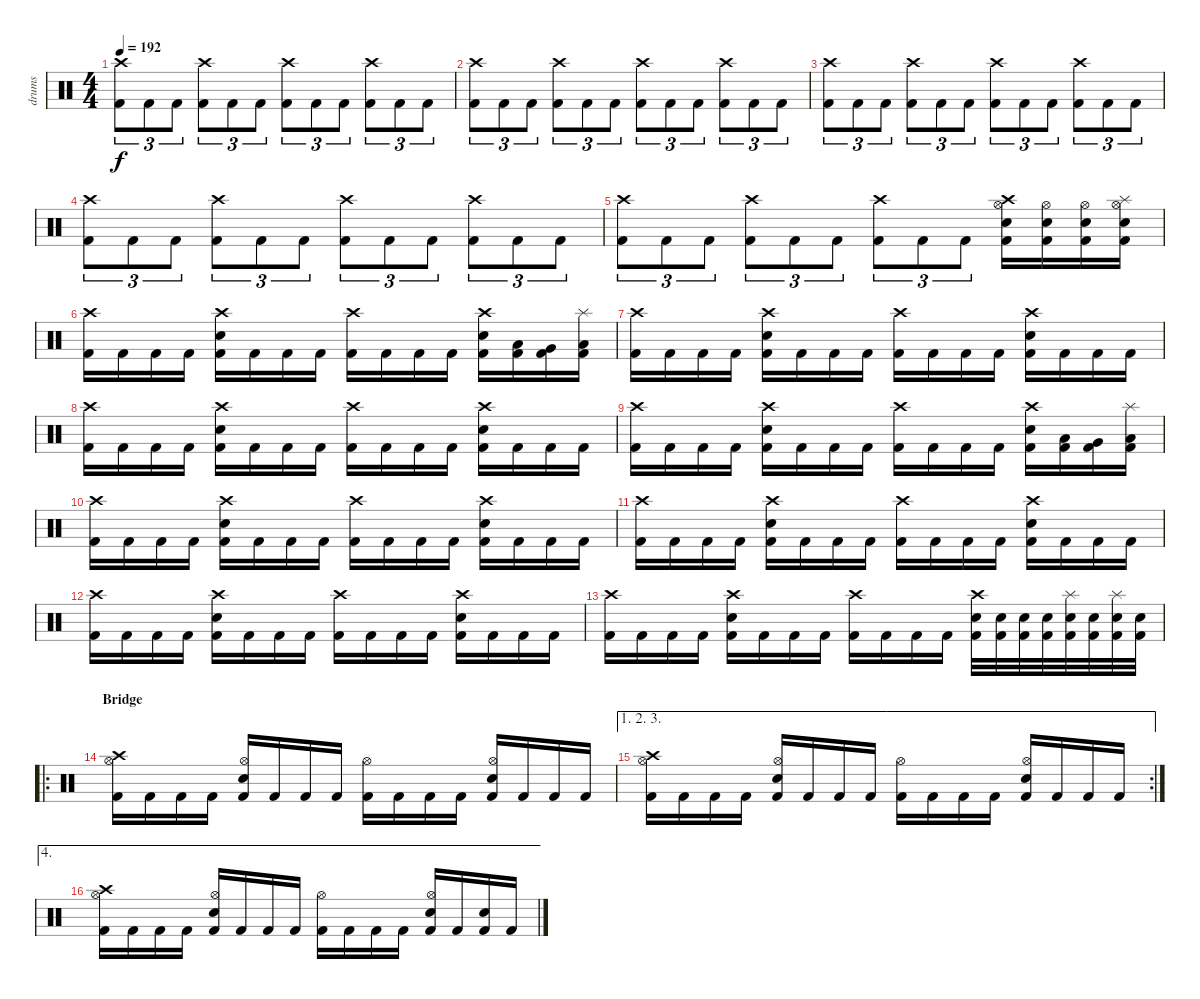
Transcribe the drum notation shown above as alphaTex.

\track ("drums" "drums") {instrument percussion}
\staff {score}
\articulation defaults
\ts (4 4)
\tempo 192
\clef neutral
\ks c
("Crash high (hit)" "Kick (hit) 2").8{tu (3 2) dy f} "Kick (hit) 2".8{tu (3 2)} "Kick (hit) 2".8{tu (3 2)} ("Crash high (hit)" "Kick (hit) 2").8{tu (3 2)} "Kick (hit) 2".8{tu (3 2)} "Kick (hit) 2".8{tu (3 2)} ("Crash high (hit)" "Kick (hit) 2").8{tu (3 2)} "Kick (hit) 2".8{tu (3 2)} "Kick (hit) 2".8{tu (3 2)} ("Crash high (hit)" "Kick (hit) 2").8{tu (3 2)} "Kick (hit) 2".8{tu (3 2)} "Kick (hit) 2".8{tu (3 2)} |
("Crash high (hit)" "Kick (hit) 2").8{tu (3 2)} "Kick (hit) 2".8{tu (3 2)} "Kick (hit) 2".8{tu (3 2)} ("Crash high (hit)" "Kick (hit) 2").8{tu (3 2)} "Kick (hit) 2".8{tu (3 2)} "Kick (hit) 2".8{tu (3 2)} ("Crash high (hit)" "Kick (hit) 2").8{tu (3 2)} "Kick (hit) 2".8{tu (3 2)} "Kick (hit) 2".8{tu (3 2)} ("Crash high (hit)" "Kick (hit) 2").8{tu (3 2)} "Kick (hit) 2".8{tu (3 2)} "Kick (hit) 2".8{tu (3 2)} |
("Crash high (hit)" "Kick (hit) 2").8{tu (3 2)} "Kick (hit) 2".8{tu (3 2)} "Kick (hit) 2".8{tu (3 2)} ("Crash high (hit)" "Kick (hit) 2").8{tu (3 2)} "Kick (hit) 2".8{tu (3 2)} "Kick (hit) 2".8{tu (3 2)} ("Crash high (hit)" "Kick (hit) 2").8{tu (3 2)} "Kick (hit) 2".8{tu (3 2)} "Kick (hit) 2".8{tu (3 2)} ("Crash high (hit)" "Kick (hit) 2").8{tu (3 2)} "Kick (hit) 2".8{tu (3 2)} "Kick (hit) 2".8{tu (3 2)} |
("Crash high (hit)" "Kick (hit) 2").8{tu (3 2)} "Kick (hit) 2".8{tu (3 2)} "Kick (hit) 2".8{tu (3 2)} ("Crash high (hit)" "Kick (hit) 2").8{tu (3 2)} "Kick (hit) 2".8{tu (3 2)} "Kick (hit) 2".8{tu (3 2)} ("Crash high (hit)" "Kick (hit) 2").8{tu (3 2)} "Kick (hit) 2".8{tu (3 2)} "Kick (hit) 2".8{tu (3 2)} ("Crash high (hit)" "Kick (hit) 2").8{tu (3 2)} "Kick (hit) 2".8{tu (3 2)} "Kick (hit) 2".8{tu (3 2)} |
("Crash high (hit)" "Kick (hit) 2").8{tu (3 2)} "Kick (hit) 2".8{tu (3 2)} "Kick (hit) 2".8{tu (3 2)} ("Crash high (hit)" "Kick (hit) 2").8{tu (3 2)} "Kick (hit) 2".8{tu (3 2)} "Kick (hit) 2".8{tu (3 2)} ("Crash high (hit)" "Kick (hit) 2").8{tu (3 2)} "Kick (hit) 2".8{tu (3 2)} "Kick (hit) 2".8{tu (3 2)} ("Crash high (hit)" "Hi-Hat (open)" "Electric Snare (hit)" "Kick (hit) 2").16 ("Hi-Hat (open)" "Electric Snare (hit)" "Kick (hit) 2").16 ("Hi-Hat (open)" "Electric Snare (hit)" "Kick (hit) 2").16 ("Splash (hit)" "Hi-Hat (open)" "Electric Snare (hit)" "Kick (hit) 2").16 |
("Crash high (hit)" "Kick (hit) 2").16 "Kick (hit) 2".16 "Kick (hit) 2".16 "Kick (hit) 2".16 ("Crash high (hit)" "Electric Snare (hit)" "Kick (hit) 2").16 "Kick (hit) 2".16 "Kick (hit) 2".16 "Kick (hit) 2".16 ("Crash high (hit)" "Kick (hit) 2").16 "Kick (hit) 2".16 "Kick (hit) 2".16 "Kick (hit) 2".16 ("Crash high (hit)" "Electric Snare (hit)" "Kick (hit) 2").16 ("Low Tom (hit)" "Kick (hit) 2").16 ("Very Low Tom (hit)" "Kick (hit) 2").16 ("Splash (hit)" "Low Floor Tom (hit)" "Kick (hit) 2").16 |
("Crash high (hit)" "Kick (hit) 2").16 "Kick (hit) 2".16 "Kick (hit) 2".16 "Kick (hit) 2".16 ("Crash high (hit)" "Electric Snare (hit)" "Kick (hit) 2").16 "Kick (hit) 2".16 "Kick (hit) 2".16 "Kick (hit) 2".16 ("Crash high (hit)" "Kick (hit) 2").16 "Kick (hit) 2".16 "Kick (hit) 2".16 "Kick (hit) 2".16 ("Crash high (hit)" "Electric Snare (hit)" "Kick (hit) 2").16 "Kick (hit) 2".16 "Kick (hit) 2".16 "Kick (hit) 2".16 |
("Crash high (hit)" "Kick (hit) 2").16 "Kick (hit) 2".16 "Kick (hit) 2".16 "Kick (hit) 2".16 ("Crash high (hit)" "Electric Snare (hit)" "Kick (hit) 2").16 "Kick (hit) 2".16 "Kick (hit) 2".16 "Kick (hit) 2".16 ("Crash high (hit)" "Kick (hit) 2").16 "Kick (hit) 2".16 "Kick (hit) 2".16 "Kick (hit) 2".16 ("Crash high (hit)" "Electric Snare (hit)" "Kick (hit) 2").16 "Kick (hit) 2".16 "Kick (hit) 2".16 "Kick (hit) 2".16 |
("Crash high (hit)" "Kick (hit) 2").16 "Kick (hit) 2".16 "Kick (hit) 2".16 "Kick (hit) 2".16 ("Crash high (hit)" "Electric Snare (hit)" "Kick (hit) 2").16 "Kick (hit) 2".16 "Kick (hit) 2".16 "Kick (hit) 2".16 ("Crash high (hit)" "Kick (hit) 2").16 "Kick (hit) 2".16 "Kick (hit) 2".16 "Kick (hit) 2".16 ("Crash high (hit)" "Electric Snare (hit)" "Kick (hit) 2").16 ("Low Tom (hit)" "Kick (hit) 2").16 ("Very Low Tom (hit)" "Kick (hit) 2").16 ("Splash (hit)" "Low Floor Tom (hit)" "Kick (hit) 2").16 |
("Crash high (hit)" "Kick (hit) 2").16 "Kick (hit) 2".16 "Kick (hit) 2".16 "Kick (hit) 2".16 ("Crash high (hit)" "Electric Snare (hit)" "Kick (hit) 2").16 "Kick (hit) 2".16 "Kick (hit) 2".16 "Kick (hit) 2".16 ("Crash high (hit)" "Kick (hit) 2").16 "Kick (hit) 2".16 "Kick (hit) 2".16 "Kick (hit) 2".16 ("Crash high (hit)" "Electric Snare (hit)" "Kick (hit) 2").16 "Kick (hit) 2".16 "Kick (hit) 2".16 "Kick (hit) 2".16 |
("Crash high (hit)" "Kick (hit) 2").16 "Kick (hit) 2".16 "Kick (hit) 2".16 "Kick (hit) 2".16 ("Crash high (hit)" "Electric Snare (hit)" "Kick (hit) 2").16 "Kick (hit) 2".16 "Kick (hit) 2".16 "Kick (hit) 2".16 ("Crash high (hit)" "Kick (hit) 2").16 "Kick (hit) 2".16 "Kick (hit) 2".16 "Kick (hit) 2".16 ("Crash high (hit)" "Electric Snare (hit)" "Kick (hit) 2").16 "Kick (hit) 2".16 "Kick (hit) 2".16 "Kick (hit) 2".16 |
("Crash high (hit)" "Kick (hit) 2").16 "Kick (hit) 2".16 "Kick (hit) 2".16 "Kick (hit) 2".16 ("Crash high (hit)" "Electric Snare (hit)" "Kick (hit) 2").16 "Kick (hit) 2".16 "Kick (hit) 2".16 "Kick (hit) 2".16 ("Crash high (hit)" "Kick (hit) 2").16 "Kick (hit) 2".16 "Kick (hit) 2".16 "Kick (hit) 2".16 ("Crash high (hit)" "Electric Snare (hit)" "Kick (hit) 2").16 "Kick (hit) 2".16 "Kick (hit) 2".16 "Kick (hit) 2".16 |
("Crash high (hit)" "Kick (hit) 2").16 "Kick (hit) 2".16 "Kick (hit) 2".16 "Kick (hit) 2".16 ("Crash high (hit)" "Electric Snare (hit)" "Kick (hit) 2").16 "Kick (hit) 2".16 "Kick (hit) 2".16 "Kick (hit) 2".16 ("Crash high (hit)" "Kick (hit) 2").16 "Kick (hit) 2".16 "Kick (hit) 2".16 "Kick (hit) 2".16 ("Crash high (hit)" "Electric Snare (hit)" "Kick (hit) 2").32 ("Electric Snare (hit)" "Kick (hit) 2").32 ("Electric Snare (hit)" "Kick (hit) 2").32 ("Electric Snare (hit)" "Kick (hit) 2").32 ("Splash (hit)" "Electric Snare (hit)" "Kick (hit) 2").32 ("Electric Snare (hit)" "Kick (hit) 2").32 ("Splash (hit)" "Electric Snare (hit)" "Kick (hit) 2").32 ("Electric Snare (hit)" "Kick (hit) 2").32 |
\ro
\section ("" "Bridge")
("Crash high (hit)" "Hi-Hat (open)" "Kick (hit) 2").16 "Kick (hit) 2".16 "Kick (hit) 2".16 "Kick (hit) 2".16 ("Hi-Hat (open)" "Electric Snare (hit)" "Kick (hit) 2").16 "Kick (hit) 2".16 "Kick (hit) 2".16 "Kick (hit) 2".16 ("Hi-Hat (open)" "Kick (hit) 2").16 "Kick (hit) 2".16 "Kick (hit) 2".16 "Kick (hit) 2".16 ("Hi-Hat (open)" "Electric Snare (hit)" "Kick (hit) 2").16 "Kick (hit) 2".16 "Kick (hit) 2".16 "Kick (hit) 2".16 |
\ae (1 2 3)
\rc 2
("Crash high (hit)" "Hi-Hat (open)" "Kick (hit) 2").16 "Kick (hit) 2".16 "Kick (hit) 2".16 "Kick (hit) 2".16 ("Hi-Hat (open)" "Electric Snare (hit)" "Kick (hit) 2").16 "Kick (hit) 2".16 "Kick (hit) 2".16 "Kick (hit) 2".16 ("Hi-Hat (open)" "Kick (hit) 2").16 "Kick (hit) 2".16 "Kick (hit) 2".16 "Kick (hit) 2".16 ("Hi-Hat (open)" "Electric Snare (hit)" "Kick (hit) 2").16 "Kick (hit) 2".16 "Kick (hit) 2".16 "Kick (hit) 2".16 |
\ae 4
("Crash high (hit)" "Hi-Hat (open)" "Kick (hit) 2").16 "Kick (hit) 2".16 "Kick (hit) 2".16 "Kick (hit) 2".16 ("Hi-Hat (open)" "Electric Snare (hit)" "Kick (hit) 2").16 "Kick (hit) 2".16 "Kick (hit) 2".16 "Kick (hit) 2".16 ("Hi-Hat (open)" "Kick (hit) 2").16 "Kick (hit) 2".16 "Kick (hit) 2".16 "Kick (hit) 2".16 ("Hi-Hat (open)" "Electric Snare (hit)" "Kick (hit) 2").16 "Kick (hit) 2".16 ("Electric Snare (hit)" "Kick (hit) 2").16 "Kick (hit) 2".16
